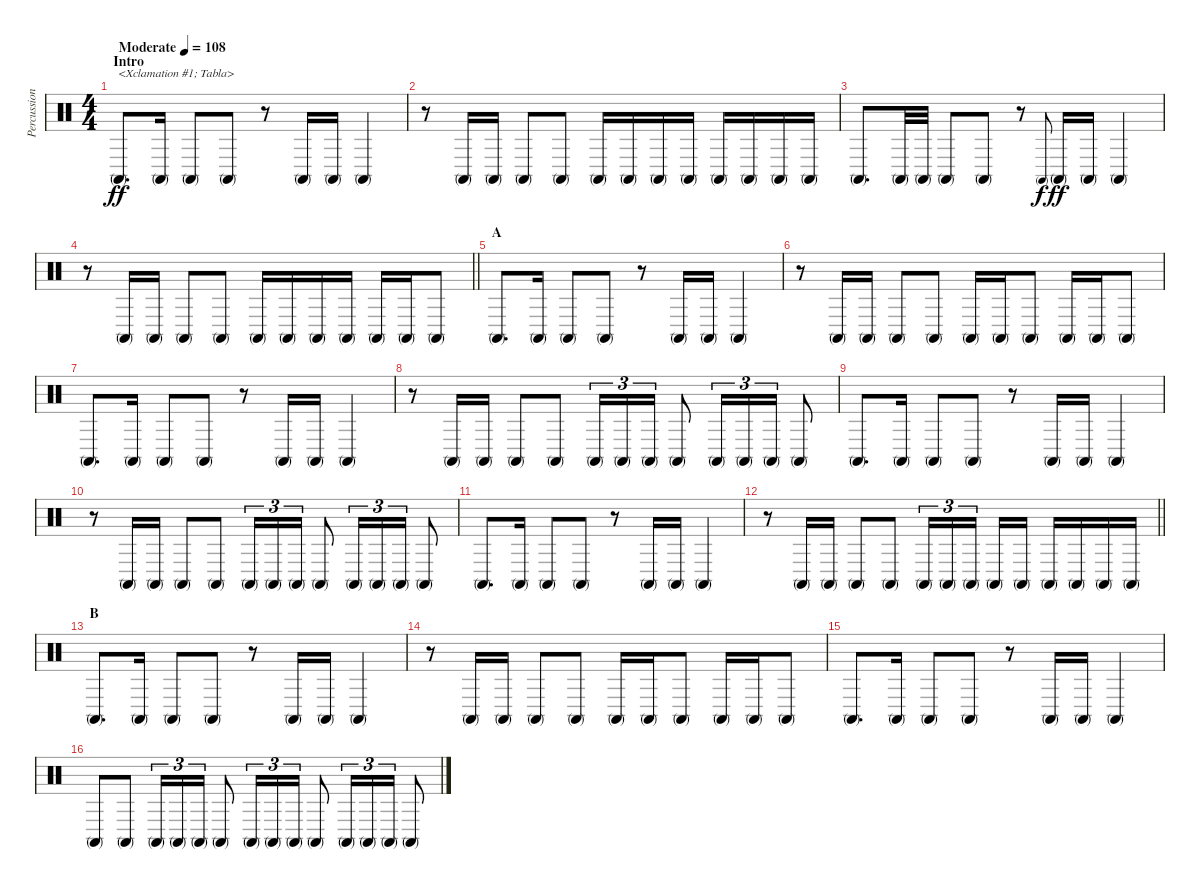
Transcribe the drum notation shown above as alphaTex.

\track ("Percussion" "Percussion") {instrument percussion}
\staff {score}
\articulation defaults
\ts (4 4)
\section ("" "Intro")
\tempo (108 "Moderate")
\clef neutral
\ks c "Conga high (mute)".8{d txt "<Xclamation #1; Tabla>" dy ff} "Conga high (mute)".16 "Conga high (mute)".8 "Conga high (mute)".8
r.8 "Conga high (mute)".16 "Conga high (mute)".16 "Conga high (mute)".4 |
r.8 "Conga high (mute)".16 "Conga high (mute)".16 "Conga high (mute)".8 "Conga high (mute)".8 "Conga high (mute)".16 "Conga high (mute)".16 "Conga high (mute)".16 "Conga high (mute)".16 "Conga high (mute)".16 "Conga high (mute)".16 "Conga high (mute)".16 "Conga high (mute)".16 |
"Conga high (mute)".8{d} "Conga high (mute)".32 "Conga high (mute)".32 "Conga high (mute)".8 "Conga high (mute)".8 r.8 "Conga high (mute)".8{gr onbeat dy f} "Conga high (mute)".16{dy ff} "Conga high (mute)".16 "Conga high (mute)".4 |
\barLineRight lightlight
r.8 "Conga high (mute)".16 "Conga high (mute)".16 "Conga high (mute)".8 "Conga high (mute)".8 "Conga high (mute)".16 "Conga high (mute)".16 "Conga high (mute)".16 "Conga high (mute)".16 "Conga high (mute)".16 "Conga high (mute)".16 "Conga high (mute)".8 |
\section ("" "A")
"Conga high (mute)".8{d} "Conga high (mute)".16 "Conga high (mute)".8 "Conga high (mute)".8 r.8 "Conga high (mute)".16 "Conga high (mute)".16 "Conga high (mute)".4 |
r.8 "Conga high (mute)".16 "Conga high (mute)".16 "Conga high (mute)".8 "Conga high (mute)".8 "Conga high (mute)".16 "Conga high (mute)".16 "Conga high (mute)".8 "Conga high (mute)".16 "Conga high (mute)".16 "Conga high (mute)".8 |
"Conga high (mute)".8{d} "Conga high (mute)".16 "Conga high (mute)".8 "Conga high (mute)".8 r.8 "Conga high (mute)".16 "Conga high (mute)".16 "Conga high (mute)".4 |
r.8 "Conga high (mute)".16 "Conga high (mute)".16 "Conga high (mute)".8 "Conga high (mute)".8 "Conga high (mute)".16{tu (3 2)} "Conga high (mute)".16{tu (3 2)} "Conga high (mute)".16{tu (3 2)} "Conga high (mute)".8 "Conga high (mute)".16{tu (3 2)} "Conga high (mute)".16{tu (3 2)} "Conga high (mute)".16{tu (3 2)} "Conga high (mute)".8 |
"Conga high (mute)".8{d} "Conga high (mute)".16 "Conga high (mute)".8 "Conga high (mute)".8 r.8 "Conga high (mute)".16 "Conga high (mute)".16 "Conga high (mute)".4 |
r.8 "Conga high (mute)".16 "Conga high (mute)".16 "Conga high (mute)".8 "Conga high (mute)".8 "Conga high (mute)".16{tu (3 2)} "Conga high (mute)".16{tu (3 2)} "Conga high (mute)".16{tu (3 2)} "Conga high (mute)".8 "Conga high (mute)".16{tu (3 2)} "Conga high (mute)".16{tu (3 2)} "Conga high (mute)".16{tu (3 2)} "Conga high (mute)".8 |
"Conga high (mute)".8{d} "Conga high (mute)".16 "Conga high (mute)".8 "Conga high (mute)".8 r.8 "Conga high (mute)".16 "Conga high (mute)".16 "Conga high (mute)".4 |
\barLineRight lightlight
r.8 "Conga high (mute)".16 "Conga high (mute)".16 "Conga high (mute)".8 "Conga high (mute)".8 "Conga high (mute)".16{tu (3 2)} "Conga high (mute)".16{tu (3 2)} "Conga high (mute)".16{tu (3 2) beam splitsecondary} "Conga high (mute)".16 "Conga high (mute)".16 "Conga high (mute)".16 "Conga high (mute)".16 "Conga high (mute)".16 "Conga high (mute)".16 |
\section ("" "B")
"Conga high (mute)".8{d} "Conga high (mute)".16 "Conga high (mute)".8 "Conga high (mute)".8 r.8 "Conga high (mute)".16 "Conga high (mute)".16 "Conga high (mute)".4 |
r.8 "Conga high (mute)".16 "Conga high (mute)".16 "Conga high (mute)".8 "Conga high (mute)".8 "Conga high (mute)".16 "Conga high (mute)".16 "Conga high (mute)".8 "Conga high (mute)".16 "Conga high (mute)".16 "Conga high (mute)".8 |
"Conga high (mute)".8{d} "Conga high (mute)".16 "Conga high (mute)".8 "Conga high (mute)".8 r.8 "Conga high (mute)".16 "Conga high (mute)".16 "Conga high (mute)".4 |
"Conga high (mute)".8 "Conga high (mute)".8 "Conga high (mute)".16{tu (3 2)} "Conga high (mute)".16{tu (3 2)} "Conga high (mute)".16{tu (3 2)} "Conga high (mute)".8 "Conga high (mute)".16{tu (3 2)} "Conga high (mute)".16{tu (3 2)} "Conga high (mute)".16{tu (3 2)} "Conga high (mute)".8 "Conga high (mute)".16{tu (3 2)} "Conga high (mute)".16{tu (3 2)} "Conga high (mute)".16{tu (3 2)} "Conga high (mute)".8
